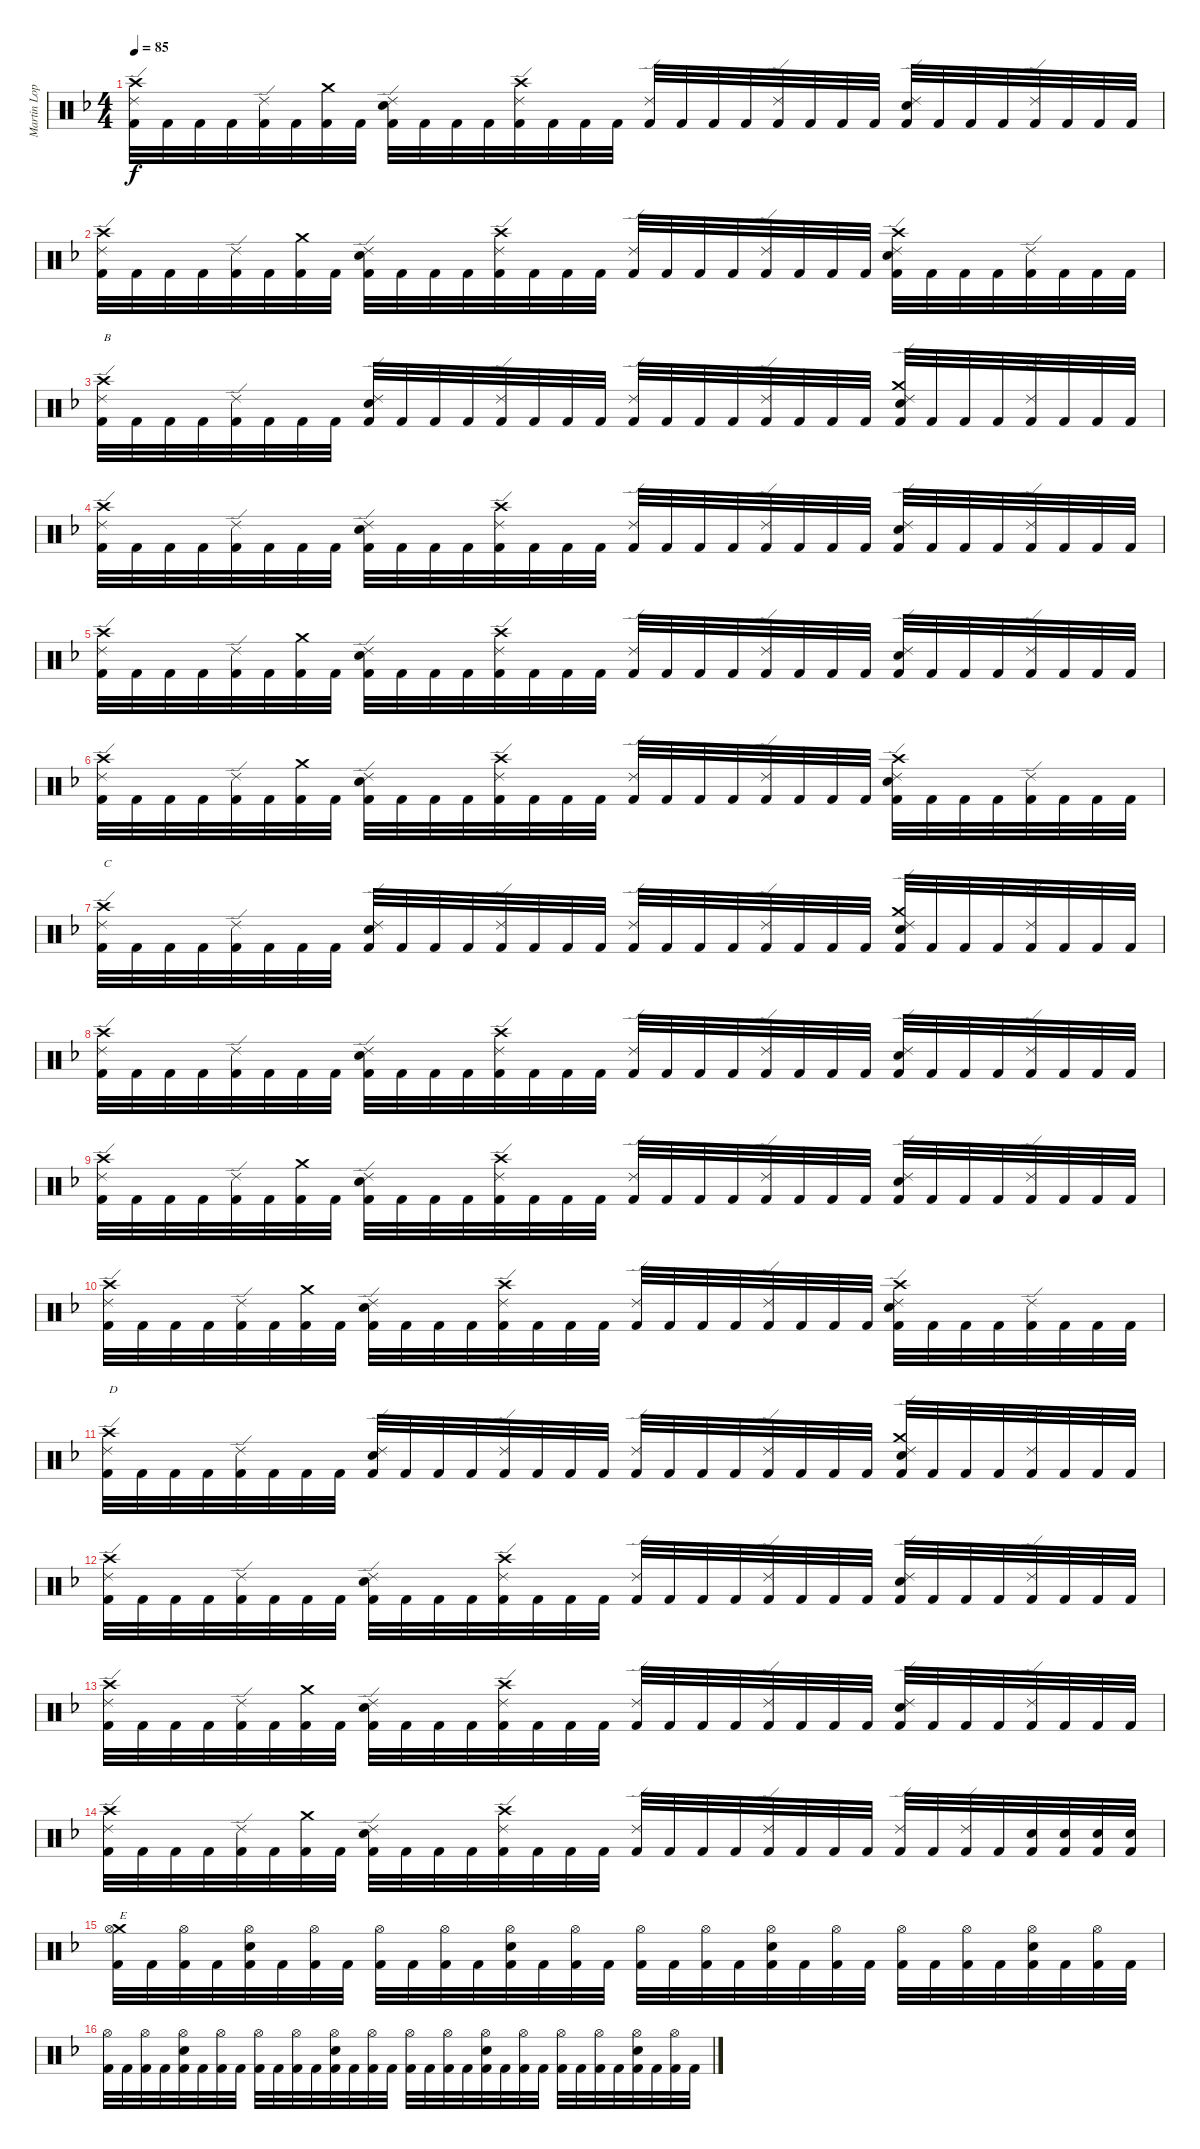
\track ("Martin Lopez - Drums" "Martin Lop") {instrument percussion}
\staff {score}
\articulation defaults
\ts (4 4)
\tempo 85
\clef neutral
\ks f
("Crash high (hit)" "Ride (edge) 2" "Kick (hit) 2").32{dy f} "Kick (hit) 2".32 "Kick (hit) 2".32 "Kick (hit) 2".32 ("Ride (edge) 2" "Kick (hit) 2").32 "Kick (hit) 2".32 ("Crash medium (hit)" "Kick (hit) 2").32 "Kick (hit) 2".32 ("Ride (edge) 2" "Electric Snare (hit)" "Kick (hit) 2").32 "Kick (hit) 2".32 "Kick (hit) 2".32 "Kick (hit) 2".32 ("Crash high (hit)" "Ride (edge) 2" "Kick (hit) 2").32 "Kick (hit) 2".32 "Kick (hit) 2".32 "Kick (hit) 2".32 ("Ride (edge) 2" "Kick (hit) 2").32 "Kick (hit) 2".32 "Kick (hit) 2".32 "Kick (hit) 2".32 ("Ride (edge) 2" "Kick (hit) 2").32 "Kick (hit) 2".32 "Kick (hit) 2".32 "Kick (hit) 2".32 ("Ride (edge) 2" "Electric Snare (hit)" "Kick (hit) 2").32 "Kick (hit) 2".32 "Kick (hit) 2".32 "Kick (hit) 2".32 ("Ride (edge) 2" "Kick (hit) 2").32 "Kick (hit) 2".32 "Kick (hit) 2".32 "Kick (hit) 2".32 |
("Crash high (hit)" "Ride (edge) 2" "Kick (hit) 2").32 "Kick (hit) 2".32 "Kick (hit) 2".32 "Kick (hit) 2".32 ("Ride (edge) 2" "Kick (hit) 2").32 "Kick (hit) 2".32 ("Crash medium (hit)" "Kick (hit) 2").32 "Kick (hit) 2".32 ("Ride (edge) 2" "Electric Snare (hit)" "Kick (hit) 2").32 "Kick (hit) 2".32 "Kick (hit) 2".32 "Kick (hit) 2".32 ("Crash high (hit)" "Ride (edge) 2" "Kick (hit) 2").32 "Kick (hit) 2".32 "Kick (hit) 2".32 "Kick (hit) 2".32 ("Ride (edge) 2" "Kick (hit) 2").32 "Kick (hit) 2".32 "Kick (hit) 2".32 "Kick (hit) 2".32 ("Ride (edge) 2" "Kick (hit) 2").32 "Kick (hit) 2".32 "Kick (hit) 2".32 "Kick (hit) 2".32 ("Crash high (hit)" "Ride (edge) 2" "Electric Snare (hit)" "Kick (hit) 2").32 "Kick (hit) 2".32 "Kick (hit) 2".32 "Kick (hit) 2".32 ("Ride (edge) 2" "Kick (hit) 2").32 "Kick (hit) 2".32 "Kick (hit) 2".32 "Kick (hit) 2".32 |
("Crash high (hit)" "Ride (edge) 2" "Kick (hit) 2").32{txt "B"} "Kick (hit) 2".32 "Kick (hit) 2".32 "Kick (hit) 2".32 ("Ride (edge) 2" "Kick (hit) 2").32 "Kick (hit) 2".32 "Kick (hit) 2".32 "Kick (hit) 2".32 ("Ride (edge) 2" "Electric Snare (hit)" "Kick (hit) 2").32 "Kick (hit) 2".32 "Kick (hit) 2".32 "Kick (hit) 2".32 ("Ride (edge) 2" "Kick (hit) 2").32 "Kick (hit) 2".32 "Kick (hit) 2".32 "Kick (hit) 2".32 ("Ride (edge) 2" "Kick (hit) 2").32 "Kick (hit) 2".32 "Kick (hit) 2".32 "Kick (hit) 2".32 ("Ride (edge) 2" "Kick (hit) 2").32 "Kick (hit) 2".32 "Kick (hit) 2".32 "Kick (hit) 2".32 ("Crash medium (hit)" "Ride (edge) 2" "Electric Snare (hit)" "Kick (hit) 2").32 "Kick (hit) 2".32 "Kick (hit) 2".32 "Kick (hit) 2".32 ("Ride (edge) 2" "Kick (hit) 2").32 "Kick (hit) 2".32 "Kick (hit) 2".32 "Kick (hit) 2".32 |
("Crash high (hit)" "Ride (edge) 2" "Kick (hit) 2").32 "Kick (hit) 2".32 "Kick (hit) 2".32 "Kick (hit) 2".32 ("Ride (edge) 2" "Kick (hit) 2").32 "Kick (hit) 2".32 "Kick (hit) 2".32 "Kick (hit) 2".32 ("Ride (edge) 2" "Electric Snare (hit)" "Kick (hit) 2").32 "Kick (hit) 2".32 "Kick (hit) 2".32 "Kick (hit) 2".32 ("Crash high (hit)" "Ride (edge) 2" "Kick (hit) 2").32 "Kick (hit) 2".32 "Kick (hit) 2".32 "Kick (hit) 2".32 ("Ride (edge) 2" "Kick (hit) 2").32 "Kick (hit) 2".32 "Kick (hit) 2".32 "Kick (hit) 2".32 ("Ride (edge) 2" "Kick (hit) 2").32 "Kick (hit) 2".32 "Kick (hit) 2".32 "Kick (hit) 2".32 ("Ride (edge) 2" "Electric Snare (hit)" "Kick (hit) 2").32 "Kick (hit) 2".32 "Kick (hit) 2".32 "Kick (hit) 2".32 ("Ride (edge) 2" "Kick (hit) 2").32 "Kick (hit) 2".32 "Kick (hit) 2".32 "Kick (hit) 2".32 |
("Crash high (hit)" "Ride (edge) 2" "Kick (hit) 2").32 "Kick (hit) 2".32 "Kick (hit) 2".32 "Kick (hit) 2".32 ("Ride (edge) 2" "Kick (hit) 2").32 "Kick (hit) 2".32 ("Crash medium (hit)" "Kick (hit) 2").32 "Kick (hit) 2".32 ("Ride (edge) 2" "Electric Snare (hit)" "Kick (hit) 2").32 "Kick (hit) 2".32 "Kick (hit) 2".32 "Kick (hit) 2".32 ("Crash high (hit)" "Ride (edge) 2" "Kick (hit) 2").32 "Kick (hit) 2".32 "Kick (hit) 2".32 "Kick (hit) 2".32 ("Ride (edge) 2" "Kick (hit) 2").32 "Kick (hit) 2".32 "Kick (hit) 2".32 "Kick (hit) 2".32 ("Ride (edge) 2" "Kick (hit) 2").32 "Kick (hit) 2".32 "Kick (hit) 2".32 "Kick (hit) 2".32 ("Ride (edge) 2" "Electric Snare (hit)" "Kick (hit) 2").32 "Kick (hit) 2".32 "Kick (hit) 2".32 "Kick (hit) 2".32 ("Ride (edge) 2" "Kick (hit) 2").32 "Kick (hit) 2".32 "Kick (hit) 2".32 "Kick (hit) 2".32 |
("Crash high (hit)" "Ride (edge) 2" "Kick (hit) 2").32 "Kick (hit) 2".32 "Kick (hit) 2".32 "Kick (hit) 2".32 ("Ride (edge) 2" "Kick (hit) 2").32 "Kick (hit) 2".32 ("Crash medium (hit)" "Kick (hit) 2").32 "Kick (hit) 2".32 ("Ride (edge) 2" "Electric Snare (hit)" "Kick (hit) 2").32 "Kick (hit) 2".32 "Kick (hit) 2".32 "Kick (hit) 2".32 ("Crash high (hit)" "Ride (edge) 2" "Kick (hit) 2").32 "Kick (hit) 2".32 "Kick (hit) 2".32 "Kick (hit) 2".32 ("Ride (edge) 2" "Kick (hit) 2").32 "Kick (hit) 2".32 "Kick (hit) 2".32 "Kick (hit) 2".32 ("Ride (edge) 2" "Kick (hit) 2").32 "Kick (hit) 2".32 "Kick (hit) 2".32 "Kick (hit) 2".32 ("Crash high (hit)" "Ride (edge) 2" "Electric Snare (hit)" "Kick (hit) 2").32 "Kick (hit) 2".32 "Kick (hit) 2".32 "Kick (hit) 2".32 ("Ride (edge) 2" "Kick (hit) 2").32 "Kick (hit) 2".32 "Kick (hit) 2".32 "Kick (hit) 2".32 |
("Crash high (hit)" "Ride (edge) 2" "Kick (hit) 2").32{txt "C"} "Kick (hit) 2".32 "Kick (hit) 2".32 "Kick (hit) 2".32 ("Ride (edge) 2" "Kick (hit) 2").32 "Kick (hit) 2".32 "Kick (hit) 2".32 "Kick (hit) 2".32 ("Ride (edge) 2" "Electric Snare (hit)" "Kick (hit) 2").32 "Kick (hit) 2".32 "Kick (hit) 2".32 "Kick (hit) 2".32 ("Ride (edge) 2" "Kick (hit) 2").32 "Kick (hit) 2".32 "Kick (hit) 2".32 "Kick (hit) 2".32 ("Ride (edge) 2" "Kick (hit) 2").32 "Kick (hit) 2".32 "Kick (hit) 2".32 "Kick (hit) 2".32 ("Ride (edge) 2" "Kick (hit) 2").32 "Kick (hit) 2".32 "Kick (hit) 2".32 "Kick (hit) 2".32 ("Crash medium (hit)" "Ride (edge) 2" "Electric Snare (hit)" "Kick (hit) 2").32 "Kick (hit) 2".32 "Kick (hit) 2".32 "Kick (hit) 2".32 ("Ride (edge) 2" "Kick (hit) 2").32 "Kick (hit) 2".32 "Kick (hit) 2".32 "Kick (hit) 2".32 |
("Crash high (hit)" "Ride (edge) 2" "Kick (hit) 2").32 "Kick (hit) 2".32 "Kick (hit) 2".32 "Kick (hit) 2".32 ("Ride (edge) 2" "Kick (hit) 2").32 "Kick (hit) 2".32 "Kick (hit) 2".32 "Kick (hit) 2".32 ("Ride (edge) 2" "Electric Snare (hit)" "Kick (hit) 2").32 "Kick (hit) 2".32 "Kick (hit) 2".32 "Kick (hit) 2".32 ("Crash high (hit)" "Ride (edge) 2" "Kick (hit) 2").32 "Kick (hit) 2".32 "Kick (hit) 2".32 "Kick (hit) 2".32 ("Ride (edge) 2" "Kick (hit) 2").32 "Kick (hit) 2".32 "Kick (hit) 2".32 "Kick (hit) 2".32 ("Ride (edge) 2" "Kick (hit) 2").32 "Kick (hit) 2".32 "Kick (hit) 2".32 "Kick (hit) 2".32 ("Ride (edge) 2" "Electric Snare (hit)" "Kick (hit) 2").32 "Kick (hit) 2".32 "Kick (hit) 2".32 "Kick (hit) 2".32 ("Ride (edge) 2" "Kick (hit) 2").32 "Kick (hit) 2".32 "Kick (hit) 2".32 "Kick (hit) 2".32 |
("Crash high (hit)" "Ride (edge) 2" "Kick (hit) 2").32 "Kick (hit) 2".32 "Kick (hit) 2".32 "Kick (hit) 2".32 ("Ride (edge) 2" "Kick (hit) 2").32 "Kick (hit) 2".32 ("Crash medium (hit)" "Kick (hit) 2").32 "Kick (hit) 2".32 ("Ride (edge) 2" "Electric Snare (hit)" "Kick (hit) 2").32 "Kick (hit) 2".32 "Kick (hit) 2".32 "Kick (hit) 2".32 ("Crash high (hit)" "Ride (edge) 2" "Kick (hit) 2").32 "Kick (hit) 2".32 "Kick (hit) 2".32 "Kick (hit) 2".32 ("Ride (edge) 2" "Kick (hit) 2").32 "Kick (hit) 2".32 "Kick (hit) 2".32 "Kick (hit) 2".32 ("Ride (edge) 2" "Kick (hit) 2").32 "Kick (hit) 2".32 "Kick (hit) 2".32 "Kick (hit) 2".32 ("Ride (edge) 2" "Electric Snare (hit)" "Kick (hit) 2").32 "Kick (hit) 2".32 "Kick (hit) 2".32 "Kick (hit) 2".32 ("Ride (edge) 2" "Kick (hit) 2").32 "Kick (hit) 2".32 "Kick (hit) 2".32 "Kick (hit) 2".32 |
("Crash high (hit)" "Ride (edge) 2" "Kick (hit) 2").32 "Kick (hit) 2".32 "Kick (hit) 2".32 "Kick (hit) 2".32 ("Ride (edge) 2" "Kick (hit) 2").32 "Kick (hit) 2".32 ("Crash medium (hit)" "Kick (hit) 2").32 "Kick (hit) 2".32 ("Ride (edge) 2" "Electric Snare (hit)" "Kick (hit) 2").32 "Kick (hit) 2".32 "Kick (hit) 2".32 "Kick (hit) 2".32 ("Crash high (hit)" "Ride (edge) 2" "Kick (hit) 2").32 "Kick (hit) 2".32 "Kick (hit) 2".32 "Kick (hit) 2".32 ("Ride (edge) 2" "Kick (hit) 2").32 "Kick (hit) 2".32 "Kick (hit) 2".32 "Kick (hit) 2".32 ("Ride (edge) 2" "Kick (hit) 2").32 "Kick (hit) 2".32 "Kick (hit) 2".32 "Kick (hit) 2".32 ("Crash high (hit)" "Ride (edge) 2" "Electric Snare (hit)" "Kick (hit) 2").32 "Kick (hit) 2".32 "Kick (hit) 2".32 "Kick (hit) 2".32 ("Ride (edge) 2" "Kick (hit) 2").32 "Kick (hit) 2".32 "Kick (hit) 2".32 "Kick (hit) 2".32 |
("Crash high (hit)" "Ride (edge) 2" "Kick (hit) 2").32{txt "D"} "Kick (hit) 2".32 "Kick (hit) 2".32 "Kick (hit) 2".32 ("Ride (edge) 2" "Kick (hit) 2").32 "Kick (hit) 2".32 "Kick (hit) 2".32 "Kick (hit) 2".32 ("Ride (edge) 2" "Electric Snare (hit)" "Kick (hit) 2").32 "Kick (hit) 2".32 "Kick (hit) 2".32 "Kick (hit) 2".32 ("Ride (edge) 2" "Kick (hit) 2").32 "Kick (hit) 2".32 "Kick (hit) 2".32 "Kick (hit) 2".32 ("Ride (edge) 2" "Kick (hit) 2").32 "Kick (hit) 2".32 "Kick (hit) 2".32 "Kick (hit) 2".32 ("Ride (edge) 2" "Kick (hit) 2").32 "Kick (hit) 2".32 "Kick (hit) 2".32 "Kick (hit) 2".32 ("Crash medium (hit)" "Ride (edge) 2" "Electric Snare (hit)" "Kick (hit) 2").32 "Kick (hit) 2".32 "Kick (hit) 2".32 "Kick (hit) 2".32 ("Ride (edge) 2" "Kick (hit) 2").32 "Kick (hit) 2".32 "Kick (hit) 2".32 "Kick (hit) 2".32 |
("Crash high (hit)" "Ride (edge) 2" "Kick (hit) 2").32 "Kick (hit) 2".32 "Kick (hit) 2".32 "Kick (hit) 2".32 ("Ride (edge) 2" "Kick (hit) 2").32 "Kick (hit) 2".32 "Kick (hit) 2".32 "Kick (hit) 2".32 ("Ride (edge) 2" "Electric Snare (hit)" "Kick (hit) 2").32 "Kick (hit) 2".32 "Kick (hit) 2".32 "Kick (hit) 2".32 ("Crash high (hit)" "Ride (edge) 2" "Kick (hit) 2").32 "Kick (hit) 2".32 "Kick (hit) 2".32 "Kick (hit) 2".32 ("Ride (edge) 2" "Kick (hit) 2").32 "Kick (hit) 2".32 "Kick (hit) 2".32 "Kick (hit) 2".32 ("Ride (edge) 2" "Kick (hit) 2").32 "Kick (hit) 2".32 "Kick (hit) 2".32 "Kick (hit) 2".32 ("Ride (edge) 2" "Electric Snare (hit)" "Kick (hit) 2").32 "Kick (hit) 2".32 "Kick (hit) 2".32 "Kick (hit) 2".32 ("Ride (edge) 2" "Kick (hit) 2").32 "Kick (hit) 2".32 "Kick (hit) 2".32 "Kick (hit) 2".32 |
("Crash high (hit)" "Ride (edge) 2" "Kick (hit) 2").32 "Kick (hit) 2".32 "Kick (hit) 2".32 "Kick (hit) 2".32 ("Ride (edge) 2" "Kick (hit) 2").32 "Kick (hit) 2".32 ("Crash medium (hit)" "Kick (hit) 2").32 "Kick (hit) 2".32 ("Ride (edge) 2" "Electric Snare (hit)" "Kick (hit) 2").32 "Kick (hit) 2".32 "Kick (hit) 2".32 "Kick (hit) 2".32 ("Crash high (hit)" "Ride (edge) 2" "Kick (hit) 2").32 "Kick (hit) 2".32 "Kick (hit) 2".32 "Kick (hit) 2".32 ("Ride (edge) 2" "Kick (hit) 2").32 "Kick (hit) 2".32 "Kick (hit) 2".32 "Kick (hit) 2".32 ("Ride (edge) 2" "Kick (hit) 2").32 "Kick (hit) 2".32 "Kick (hit) 2".32 "Kick (hit) 2".32 ("Ride (edge) 2" "Electric Snare (hit)" "Kick (hit) 2").32 "Kick (hit) 2".32 "Kick (hit) 2".32 "Kick (hit) 2".32 ("Ride (edge) 2" "Kick (hit) 2").32 "Kick (hit) 2".32 "Kick (hit) 2".32 "Kick (hit) 2".32 |
("Crash high (hit)" "Ride (edge) 2" "Kick (hit) 2").32 "Kick (hit) 2".32 "Kick (hit) 2".32 "Kick (hit) 2".32 ("Ride (edge) 2" "Kick (hit) 2").32 "Kick (hit) 2".32 ("Crash medium (hit)" "Kick (hit) 2").32 "Kick (hit) 2".32 ("Ride (edge) 2" "Electric Snare (hit)" "Kick (hit) 2").32 "Kick (hit) 2".32 "Kick (hit) 2".32 "Kick (hit) 2".32 ("Crash high (hit)" "Ride (edge) 2" "Kick (hit) 2").32 "Kick (hit) 2".32 "Kick (hit) 2".32 "Kick (hit) 2".32 ("Ride (edge) 2" "Kick (hit) 2").32 "Kick (hit) 2".32 "Kick (hit) 2".32 "Kick (hit) 2".32 ("Ride (edge) 2" "Kick (hit) 2").32 "Kick (hit) 2".32 "Kick (hit) 2".32 "Kick (hit) 2".32 ("Ride (edge) 2" "Kick (hit) 2").32 "Kick (hit) 2".32 ("Ride (edge) 2" "Kick (hit) 2").32 "Kick (hit) 2".32 ("Electric Snare (hit)" "Kick (hit) 2").32 ("Electric Snare (hit)" "Kick (hit) 2").32 ("Electric Snare (hit)" "Kick (hit) 2").32 ("Electric Snare (hit)" "Kick (hit) 2").32 |
("Crash medium (hit)" "Hi-Hat (open)" "Kick (hit) 2").32{txt "E"} "Kick (hit) 2".32 ("Hi-Hat (open)" "Kick (hit) 2").32 "Kick (hit) 2".32 ("Hi-Hat (open)" "Electric Snare (hit)" "Kick (hit) 2").32 "Kick (hit) 2".32 ("Hi-Hat (open)" "Kick (hit) 2").32 "Kick (hit) 2".32 ("Hi-Hat (open)" "Kick (hit) 2").32 "Kick (hit) 2".32 ("Hi-Hat (open)" "Kick (hit) 2").32 "Kick (hit) 2".32 ("Hi-Hat (open)" "Electric Snare (hit)" "Kick (hit) 2").32 "Kick (hit) 2".32 ("Hi-Hat (open)" "Kick (hit) 2").32 "Kick (hit) 2".32 ("Hi-Hat (open)" "Kick (hit) 2").32 "Kick (hit) 2".32 ("Hi-Hat (open)" "Kick (hit) 2").32 "Kick (hit) 2".32 ("Hi-Hat (open)" "Electric Snare (hit)" "Kick (hit) 2").32 "Kick (hit) 2".32 ("Hi-Hat (open)" "Kick (hit) 2").32 "Kick (hit) 2".32 ("Hi-Hat (open)" "Kick (hit) 2").32 "Kick (hit) 2".32 ("Hi-Hat (open)" "Kick (hit) 2").32 "Kick (hit) 2".32 ("Hi-Hat (open)" "Electric Snare (hit)" "Kick (hit) 2").32 "Kick (hit) 2".32 ("Hi-Hat (open)" "Kick (hit) 2").32 "Kick (hit) 2".32 |
("Hi-Hat (open)" "Kick (hit) 2").32 "Kick (hit) 2".32 ("Hi-Hat (open)" "Kick (hit) 2").32 "Kick (hit) 2".32 ("Hi-Hat (open)" "Electric Snare (hit)" "Kick (hit) 2").32 "Kick (hit) 2".32 ("Hi-Hat (open)" "Kick (hit) 2").32 "Kick (hit) 2".32 ("Hi-Hat (open)" "Kick (hit) 2").32 "Kick (hit) 2".32 ("Hi-Hat (open)" "Kick (hit) 2").32 "Kick (hit) 2".32 ("Hi-Hat (open)" "Electric Snare (hit)" "Kick (hit) 2").32 "Kick (hit) 2".32 ("Hi-Hat (open)" "Kick (hit) 2").32 "Kick (hit) 2".32 ("Hi-Hat (open)" "Kick (hit) 2").32 "Kick (hit) 2".32 ("Hi-Hat (open)" "Kick (hit) 2").32 "Kick (hit) 2".32 ("Hi-Hat (open)" "Electric Snare (hit)" "Kick (hit) 2").32 "Kick (hit) 2".32 ("Hi-Hat (open)" "Kick (hit) 2").32 "Kick (hit) 2".32 ("Hi-Hat (open)" "Kick (hit) 2").32 "Kick (hit) 2".32 ("Hi-Hat (open)" "Kick (hit) 2").32 "Kick (hit) 2".32 ("Hi-Hat (open)" "Electric Snare (hit)" "Kick (hit) 2").32 "Kick (hit) 2".32 ("Hi-Hat (open)" "Kick (hit) 2").32 "Kick (hit) 2".32
